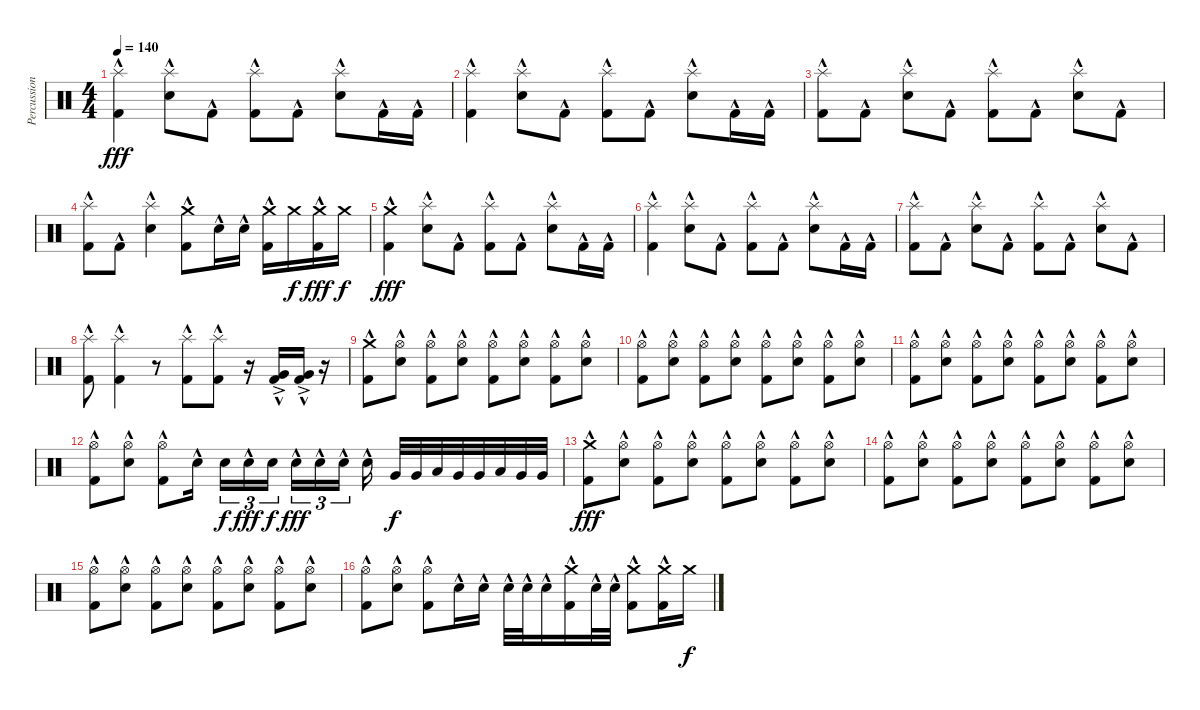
\track ("Percussion" "Percussion") {instrument percussion}
\staff {score}
\articulation defaults
\ts (4 4)
\tempo 140
\clef neutral
\ks c
("Splash (hit)" "Kick (hit) 2"{hac}).4{dy fff} ("Splash (hit)" "Electric Snare (hit)"{hac}).8 "Kick (hit) 2"{hac}.8 ("Splash (hit)" "Kick (hit) 2"{hac}).8 "Kick (hit) 2"{hac}.8 ("Splash (hit)" "Electric Snare (hit)"{hac}).8 "Kick (hit) 2"{hac}.16 "Kick (hit) 2"{hac}.16 |
("Splash (hit)" "Kick (hit) 2"{hac}).4 ("Splash (hit)" "Electric Snare (hit)"{hac}).8 "Kick (hit) 2"{hac}.8 ("Splash (hit)" "Kick (hit) 2"{hac}).8 "Kick (hit) 2"{hac}.8 ("Splash (hit)" "Electric Snare (hit)"{hac}).8 "Kick (hit) 2"{hac}.16 "Kick (hit) 2"{hac}.16 |
("Splash (hit)" "Kick (hit) 2"{hac}).8 "Kick (hit) 2"{hac}.8 ("Splash (hit)" "Electric Snare (hit)"{hac}).8 "Kick (hit) 2"{hac}.8 ("Splash (hit)" "Kick (hit) 2"{hac}).8 "Kick (hit) 2"{hac}.8 ("Splash (hit)" "Electric Snare (hit)"{hac}).8 "Kick (hit) 2"{hac}.8 |
("Splash (hit)" "Kick (hit) 2"{hac}).8 "Kick (hit) 2"{hac}.8 ("Splash (hit)" "Electric Snare (hit)"{hac}).4 ("Crash medium (hit)" "Kick (hit) 2"{hac}).8 "Electric Snare (hit)"{hac}.16 "Electric Snare (hit)"{hac}.16 ("Crash medium (hit)" "Kick (hit) 2"{hac}).16 "Crash medium (hit)".16{dy f} ("Crash medium (hit)" "Kick (hit) 2"{hac}).16{dy fff} "Crash medium (hit)".16{dy f} |
("Crash medium (hit)" "Kick (hit) 2"{hac}).4{dy fff} ("Splash (hit)" "Electric Snare (hit)"{hac}).8 "Kick (hit) 2"{hac}.8 ("Splash (hit)" "Kick (hit) 2"{hac}).8 "Kick (hit) 2"{hac}.8 ("Splash (hit)" "Electric Snare (hit)"{hac}).8 "Kick (hit) 2"{hac}.16 "Kick (hit) 2"{hac}.16 |
("Splash (hit)" "Kick (hit) 2"{hac}).4 ("Splash (hit)" "Electric Snare (hit)"{hac}).8 "Kick (hit) 2"{hac}.8 ("Splash (hit)" "Kick (hit) 2"{hac}).8 "Kick (hit) 2"{hac}.8 ("Splash (hit)" "Electric Snare (hit)"{hac}).8 "Kick (hit) 2"{hac}.16 "Kick (hit) 2"{hac}.16 |
("Splash (hit)" "Kick (hit) 2"{hac}).8 "Kick (hit) 2"{hac}.8 ("Splash (hit)" "Electric Snare (hit)"{hac}).8 "Kick (hit) 2"{hac}.8 ("Splash (hit)" "Kick (hit) 2"{hac}).8 "Kick (hit) 2"{hac}.8 ("Splash (hit)" "Electric Snare (hit)"{hac}).8 "Kick (hit) 2"{hac}.8 |
("Splash (hit)" "Kick (hit) 2"{hac}).8 ("Splash (hit)" "Kick (hit) 2"{hac}).4 r.8 ("Splash (hit)" "Kick (hit) 2"{hac}).8 ("Splash (hit)" "Kick (hit) 2"{hac}).8 r.16 ("Very Low Tom (hit)"{ac} "Kick (hit) 2"{hac}).16 ("Very Low Tom (hit)"{ac} "Kick (hit) 2"{hac}).16 r.16 |
("Crash medium (hit)" "Kick (hit) 2"{hac}).8 ("Hi-Hat (open)" "Electric Snare (hit)"{hac}).8 ("Hi-Hat (open)" "Kick (hit) 2"{hac}).8 ("Hi-Hat (open)" "Electric Snare (hit)"{hac}).8 ("Hi-Hat (open)" "Kick (hit) 2"{hac}).8 ("Hi-Hat (open)" "Electric Snare (hit)"{hac}).8 ("Hi-Hat (open)" "Kick (hit) 2"{hac}).8 ("Hi-Hat (open)" "Electric Snare (hit)"{hac}).8 |
("Hi-Hat (open)" "Kick (hit) 2"{hac}).8 ("Hi-Hat (open)" "Electric Snare (hit)"{hac}).8 ("Hi-Hat (open)" "Kick (hit) 2"{hac}).8 ("Hi-Hat (open)" "Electric Snare (hit)"{hac}).8 ("Hi-Hat (open)" "Kick (hit) 2"{hac}).8 ("Hi-Hat (open)" "Electric Snare (hit)"{hac}).8 ("Hi-Hat (open)" "Kick (hit) 2"{hac}).8 ("Hi-Hat (open)" "Electric Snare (hit)"{hac}).8 |
("Hi-Hat (open)" "Kick (hit) 2"{hac}).8 ("Hi-Hat (open)" "Electric Snare (hit)"{hac}).8 ("Hi-Hat (open)" "Kick (hit) 2"{hac}).8 ("Hi-Hat (open)" "Electric Snare (hit)"{hac}).8 ("Hi-Hat (open)" "Kick (hit) 2"{hac}).8 ("Hi-Hat (open)" "Electric Snare (hit)"{hac}).8 ("Hi-Hat (open)" "Kick (hit) 2"{hac}).8 ("Hi-Hat (open)" "Electric Snare (hit)"{hac}).8 |
("Hi-Hat (open)" "Kick (hit) 2"{hac}).8 ("Hi-Hat (open)" "Electric Snare (hit)"{hac}).8 ("Hi-Hat (open)" "Kick (hit) 2"{hac}).8 "Electric Snare (hit)"{hac}.16{beam splitsecondary} "Electric Snare (hit)".16{tu (3 2) dy f} "Electric Snare (hit)"{hac}.16{tu (3 2) dy fff} "Electric Snare (hit)".16{tu (3 2) dy f beam splitsecondary} "Electric Snare (hit)"{hac}.16{tu (3 2) dy fff} "Electric Snare (hit)"{hac}.16{tu (3 2)} "Electric Snare (hit)"{hac}.16{tu (3 2) beam splitsecondary} "Electric Snare (hit)"{hac}.16 "Very Low Tom (hit)".32{dy f} "Very Low Tom (hit)".32 "Low Floor Tom (hit)".32 "Very Low Tom (hit)".32 "Very Low Tom (hit)".32 "Low Floor Tom (hit)".32 "Very Low Tom (hit)".32 "Very Low Tom (hit)".32 |
("Crash medium (hit)" "Kick (hit) 2"{hac}).8{dy fff} ("Hi-Hat (open)" "Electric Snare (hit)"{hac}).8 ("Hi-Hat (open)" "Kick (hit) 2"{hac}).8 ("Hi-Hat (open)" "Electric Snare (hit)"{hac}).8 ("Hi-Hat (open)" "Kick (hit) 2"{hac}).8 ("Hi-Hat (open)" "Electric Snare (hit)"{hac}).8 ("Hi-Hat (open)" "Kick (hit) 2"{hac}).8 ("Hi-Hat (open)" "Electric Snare (hit)"{hac}).8 |
("Hi-Hat (open)" "Kick (hit) 2"{hac}).8 ("Hi-Hat (open)" "Electric Snare (hit)"{hac}).8 ("Hi-Hat (open)" "Kick (hit) 2"{hac}).8 ("Hi-Hat (open)" "Electric Snare (hit)"{hac}).8 ("Hi-Hat (open)" "Kick (hit) 2"{hac}).8 ("Hi-Hat (open)" "Electric Snare (hit)"{hac}).8 ("Hi-Hat (open)" "Kick (hit) 2"{hac}).8 ("Hi-Hat (open)" "Electric Snare (hit)"{hac}).8 |
("Hi-Hat (open)" "Kick (hit) 2"{hac}).8 ("Hi-Hat (open)" "Electric Snare (hit)"{hac}).8 ("Hi-Hat (open)" "Kick (hit) 2"{hac}).8 ("Hi-Hat (open)" "Electric Snare (hit)"{hac}).8 ("Hi-Hat (open)" "Kick (hit) 2"{hac}).8 ("Hi-Hat (open)" "Electric Snare (hit)"{hac}).8 ("Hi-Hat (open)" "Kick (hit) 2"{hac}).8 ("Hi-Hat (open)" "Electric Snare (hit)"{hac}).8 |
("Hi-Hat (open)" "Kick (hit) 2"{hac}).8 ("Hi-Hat (open)" "Electric Snare (hit)"{hac}).8 ("Hi-Hat (open)" "Kick (hit) 2"{hac}).8 "Electric Snare (hit)"{hac}.16 "Electric Snare (hit)"{hac}.16 "Electric Snare (hit)"{hac}.32 "Electric Snare (hit)"{hac}.32 "Electric Snare (hit)"{hac}.16 ("Crash medium (hit)" "Kick (hit) 2"{hac}).16 "Electric Snare (hit)"{hac}.32 "Electric Snare (hit)"{hac}.32 ("Crash medium (hit)" "Kick (hit) 2"{hac}).8 ("Crash medium (hit)" "Kick (hit) 2"{hac}).16 "Crash medium (hit)".16{dy f}
